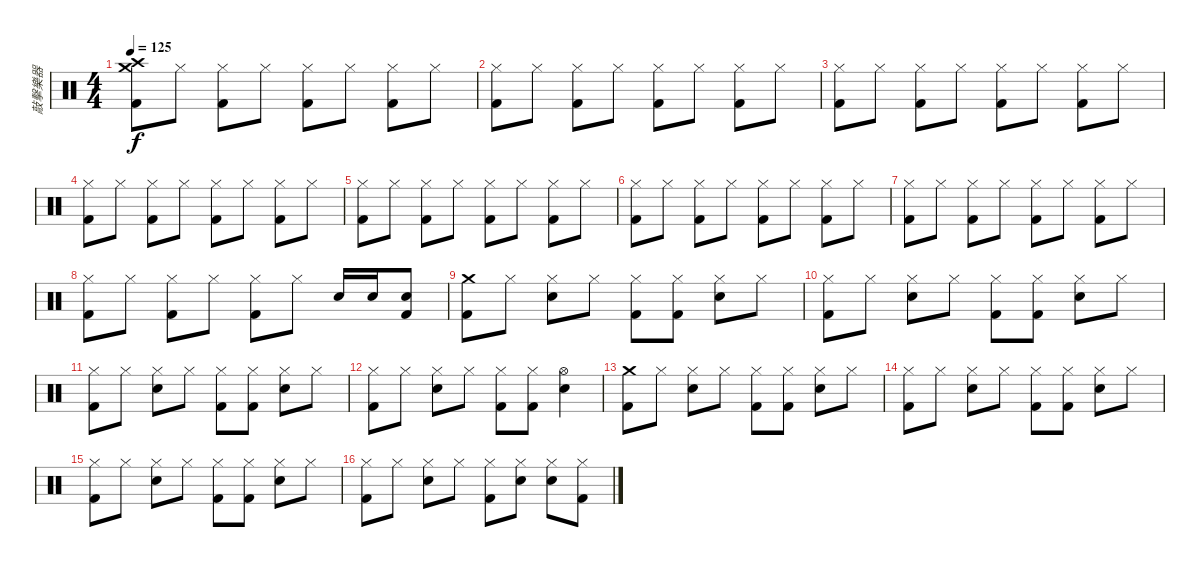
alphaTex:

\track ("敲擊樂器" "敲擊樂器") {instrument percussion}
\staff {score}
\articulation defaults
\ts (4 4)
\tempo 125
\clef neutral
\ks c
("Crash medium (hit)" "Crash high (hit)" "Kick (hit) 2").8{dy f} "Hi-Hat (closed)".8 ("Hi-Hat (closed)" "Kick (hit) 2").8 "Hi-Hat (closed)".8 ("Hi-Hat (closed)" "Kick (hit) 2").8 "Hi-Hat (closed)".8 ("Hi-Hat (closed)" "Kick (hit) 2").8 "Hi-Hat (closed)".8 |
("Hi-Hat (closed)" "Kick (hit) 2").8 "Hi-Hat (closed)".8 ("Hi-Hat (closed)" "Kick (hit) 2").8 "Hi-Hat (closed)".8 ("Hi-Hat (closed)" "Kick (hit) 2").8 "Hi-Hat (closed)".8 ("Hi-Hat (closed)" "Kick (hit) 2").8 "Hi-Hat (closed)".8 |
("Hi-Hat (closed)" "Kick (hit) 2").8 "Hi-Hat (closed)".8 ("Hi-Hat (closed)" "Kick (hit) 2").8 "Hi-Hat (closed)".8 ("Hi-Hat (closed)" "Kick (hit) 2").8 "Hi-Hat (closed)".8 ("Hi-Hat (closed)" "Kick (hit) 2").8 "Hi-Hat (closed)".8 |
("Hi-Hat (closed)" "Kick (hit) 2").8 "Hi-Hat (closed)".8 ("Hi-Hat (closed)" "Kick (hit) 2").8 "Hi-Hat (closed)".8 ("Hi-Hat (closed)" "Kick (hit) 2").8 "Hi-Hat (closed)".8 ("Hi-Hat (closed)" "Kick (hit) 2").8 "Hi-Hat (closed)".8 |
("Hi-Hat (closed)" "Kick (hit) 2").8 "Hi-Hat (closed)".8 ("Hi-Hat (closed)" "Kick (hit) 2").8 "Hi-Hat (closed)".8 ("Hi-Hat (closed)" "Kick (hit) 2").8 "Hi-Hat (closed)".8 ("Hi-Hat (closed)" "Kick (hit) 2").8 "Hi-Hat (closed)".8 |
("Hi-Hat (closed)" "Kick (hit) 2").8 "Hi-Hat (closed)".8 ("Hi-Hat (closed)" "Kick (hit) 2").8 "Hi-Hat (closed)".8 ("Hi-Hat (closed)" "Kick (hit) 2").8 "Hi-Hat (closed)".8 ("Hi-Hat (closed)" "Kick (hit) 2").8 "Hi-Hat (closed)".8 |
("Hi-Hat (closed)" "Kick (hit) 2").8 "Hi-Hat (closed)".8 ("Hi-Hat (closed)" "Kick (hit) 2").8 "Hi-Hat (closed)".8 ("Hi-Hat (closed)" "Kick (hit) 2").8 "Hi-Hat (closed)".8 ("Hi-Hat (closed)" "Kick (hit) 2").8 "Hi-Hat (closed)".8 |
("Hi-Hat (closed)" "Kick (hit) 2").8 "Hi-Hat (closed)".8 ("Hi-Hat (closed)" "Kick (hit) 2").8 "Hi-Hat (closed)".8 ("Hi-Hat (closed)" "Kick (hit) 2").8 "Hi-Hat (closed)".8 "Snare (hit) 2".16 "Snare (hit) 2".16 ("Snare (hit) 2" "Kick (hit) 2").8 |
("Crash medium (hit)" "Kick (hit) 2").8 "Hi-Hat (closed)".8 ("Hi-Hat (closed)" "Snare (hit) 2").8 "Hi-Hat (closed)".8 ("Hi-Hat (closed)" "Kick (hit) 2").8 ("Hi-Hat (closed)" "Kick (hit) 2").8 ("Hi-Hat (closed)" "Snare (hit) 2").8 "Hi-Hat (closed)".8 |
("Hi-Hat (closed)" "Kick (hit) 2").8 "Hi-Hat (closed)".8 ("Hi-Hat (closed)" "Snare (hit) 2").8 "Hi-Hat (closed)".8 ("Hi-Hat (closed)" "Kick (hit) 2").8 ("Hi-Hat (closed)" "Kick (hit) 2").8 ("Hi-Hat (closed)" "Snare (hit) 2").8 "Hi-Hat (closed)".8 |
("Hi-Hat (closed)" "Kick (hit) 2").8 "Hi-Hat (closed)".8 ("Hi-Hat (closed)" "Snare (hit) 2").8 "Hi-Hat (closed)".8 ("Hi-Hat (closed)" "Kick (hit) 2").8 ("Hi-Hat (closed)" "Kick (hit) 2").8 ("Hi-Hat (closed)" "Snare (hit) 2").8 "Hi-Hat (closed)".8 |
("Hi-Hat (closed)" "Kick (hit) 2").8 "Hi-Hat (closed)".8 ("Hi-Hat (closed)" "Snare (hit) 2").8 "Hi-Hat (closed)".8 ("Hi-Hat (closed)" "Kick (hit) 2").8 ("Hi-Hat (closed)" "Kick (hit) 2").8 ("Hi-Hat (open)" "Snare (hit) 2").4 |
("Crash medium (hit)" "Kick (hit) 2").8 "Hi-Hat (closed)".8 ("Hi-Hat (closed)" "Snare (hit) 2").8 "Hi-Hat (closed)".8 ("Hi-Hat (closed)" "Kick (hit) 2").8 ("Hi-Hat (closed)" "Kick (hit) 2").8 ("Hi-Hat (closed)" "Snare (hit) 2").8 "Hi-Hat (closed)".8 |
("Hi-Hat (closed)" "Kick (hit) 2").8 "Hi-Hat (closed)".8 ("Hi-Hat (closed)" "Snare (hit) 2").8 "Hi-Hat (closed)".8 ("Hi-Hat (closed)" "Kick (hit) 2").8 ("Hi-Hat (closed)" "Kick (hit) 2").8 ("Hi-Hat (closed)" "Snare (hit) 2").8 "Hi-Hat (closed)".8 |
("Hi-Hat (closed)" "Kick (hit) 2").8 "Hi-Hat (closed)".8 ("Hi-Hat (closed)" "Snare (hit) 2").8 "Hi-Hat (closed)".8 ("Hi-Hat (closed)" "Kick (hit) 2").8 ("Hi-Hat (closed)" "Kick (hit) 2").8 ("Hi-Hat (closed)" "Snare (hit) 2").8 "Hi-Hat (closed)".8 |
("Hi-Hat (closed)" "Kick (hit) 2").8 "Hi-Hat (closed)".8 ("Hi-Hat (closed)" "Snare (hit) 2").8 "Hi-Hat (closed)".8 ("Hi-Hat (closed)" "Kick (hit) 2").8 ("Hi-Hat (closed)" "Snare (hit) 2").8 ("Hi-Hat (closed)" "Snare (hit) 2").8 ("Hi-Hat (closed)" "Kick (hit) 2").8
